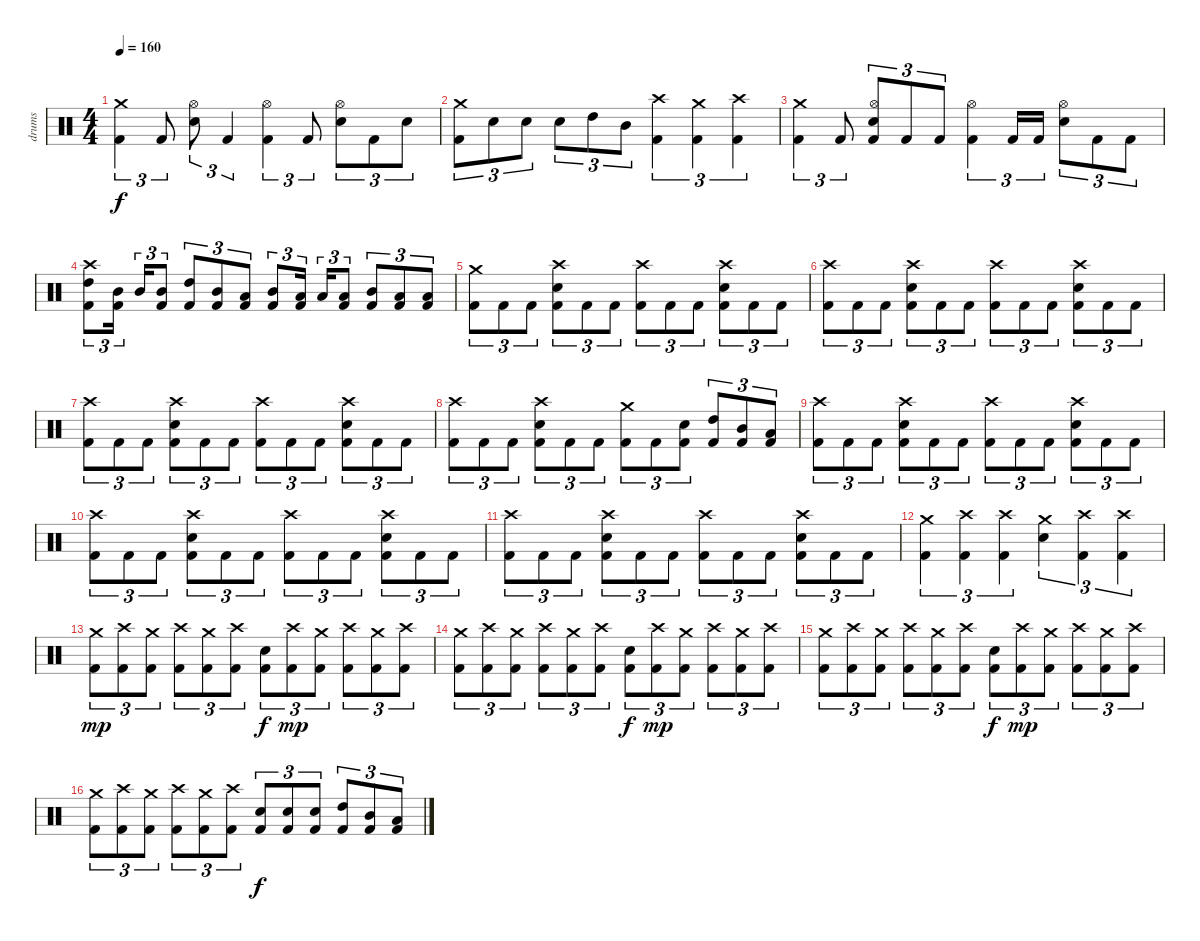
\track ("drums" "drums") {instrument percussion}
\staff {score}
\articulation defaults
\ts (4 4)
\tempo 160
\clef neutral
\ks c
("Crash medium (hit)" "Kick (hit) 2").4{tu (3 2) dy f} "Kick (hit) 2".8{tu (3 2)} ("Hi-Hat (open)" "Electric Snare (hit)").8{tu (3 2)} "Kick (hit) 2".4{tu (3 2)} ("Hi-Hat (open)" "Kick (hit) 2").4{tu (3 2)} "Kick (hit) 2".8{tu (3 2)} ("Hi-Hat (open)" "Electric Snare (hit)").8{tu (3 2)} "Kick (hit) 2".8{tu (3 2)} "Electric Snare (hit)".8{tu (3 2)} |
("Crash medium (hit)" "Kick (hit) 2").8{tu (3 2)} "Electric Snare (hit)".8{tu (3 2)} "Electric Snare (hit)".8{tu (3 2)} "Electric Snare (hit)".8{tu (3 2)} "High Tom (hit)".8{tu (3 2)} "Mid Tom (hit)".8{tu (3 2)} ("Crash high (hit)" "Kick (hit) 2").4{tu (3 2)} ("Crash medium (hit)" "Kick (hit) 2").4{tu (3 2)} ("Crash high (hit)" "Kick (hit) 2").4{tu (3 2)} |
("Crash medium (hit)" "Kick (hit) 2").4{tu (3 2)} "Kick (hit) 2".8{tu (3 2)} ("Hi-Hat (open)" "Electric Snare (hit)" "Kick (hit) 2").8{tu (3 2)} "Kick (hit) 2".8{tu (3 2)} "Kick (hit) 2".8{tu (3 2)} ("Hi-Hat (open)" "Kick (hit) 2").4{tu (3 2)} "Kick (hit) 2".16{tu (3 2)} "Kick (hit) 2".16{tu (3 2)} ("Hi-Hat (open)" "Electric Snare (hit)").8{tu (3 2)} "Kick (hit) 2".8{tu (3 2)} "Kick (hit) 2".8{tu (3 2)} |
("Crash high (hit)" "High Tom (hit)" "Kick (hit) 2").8{tu (3 2)} ("Mid Tom (hit)" "Kick (hit) 2").16{tu (3 2)} "Mid Tom (hit)".16{tu (3 2)} ("Mid Tom (hit)" "Kick (hit) 2").8{tu (3 2)} ("High Tom (hit)" "Kick (hit) 2").8{tu (3 2)} ("Mid Tom (hit)" "Kick (hit) 2").8{tu (3 2)} ("Low Tom (hit)" "Kick (hit) 2").8{tu (3 2)} ("Mid Tom (hit)" "Kick (hit) 2").8{tu (3 2)} ("Low Tom (hit)" "Kick (hit) 2").16{tu (3 2)} "Low Tom (hit)".16{tu (3 2)} ("Low Tom (hit)" "Kick (hit) 2").8{tu (3 2)} ("Mid Tom (hit)" "Kick (hit) 2").8{tu (3 2)} ("Low Tom (hit)" "Kick (hit) 2").8{tu (3 2)} ("Low Tom (hit)" "Kick (hit) 2").8{tu (3 2)} |
("Crash medium (hit)" "Kick (hit) 2").8{tu (3 2)} "Kick (hit) 2".8{tu (3 2)} "Kick (hit) 2".8{tu (3 2)} ("Crash high (hit)" "Electric Snare (hit)" "Kick (hit) 2").8{tu (3 2)} "Kick (hit) 2".8{tu (3 2)} "Kick (hit) 2".8{tu (3 2)} ("Crash high (hit)" "Kick (hit) 2").8{tu (3 2)} "Kick (hit) 2".8{tu (3 2)} "Kick (hit) 2".8{tu (3 2)} ("Crash high (hit)" "Electric Snare (hit)" "Kick (hit) 2").8{tu (3 2)} "Kick (hit) 2".8{tu (3 2)} "Kick (hit) 2".8{tu (3 2)} |
("Crash high (hit)" "Kick (hit) 2").8{tu (3 2)} "Kick (hit) 2".8{tu (3 2)} "Kick (hit) 2".8{tu (3 2)} ("Crash high (hit)" "Electric Snare (hit)" "Kick (hit) 2").8{tu (3 2)} "Kick (hit) 2".8{tu (3 2)} "Kick (hit) 2".8{tu (3 2)} ("Crash high (hit)" "Kick (hit) 2").8{tu (3 2)} "Kick (hit) 2".8{tu (3 2)} "Kick (hit) 2".8{tu (3 2)} ("Crash high (hit)" "Electric Snare (hit)" "Kick (hit) 2").8{tu (3 2)} "Kick (hit) 2".8{tu (3 2)} "Kick (hit) 2".8{tu (3 2)} |
("Crash high (hit)" "Kick (hit) 2").8{tu (3 2)} "Kick (hit) 2".8{tu (3 2)} "Kick (hit) 2".8{tu (3 2)} ("Crash high (hit)" "Electric Snare (hit)" "Kick (hit) 2").8{tu (3 2)} "Kick (hit) 2".8{tu (3 2)} "Kick (hit) 2".8{tu (3 2)} ("Crash high (hit)" "Kick (hit) 2").8{tu (3 2)} "Kick (hit) 2".8{tu (3 2)} "Kick (hit) 2".8{tu (3 2)} ("Crash high (hit)" "Electric Snare (hit)" "Kick (hit) 2").8{tu (3 2)} "Kick (hit) 2".8{tu (3 2)} "Kick (hit) 2".8{tu (3 2)} |
("Crash high (hit)" "Kick (hit) 2").8{tu (3 2)} "Kick (hit) 2".8{tu (3 2)} "Kick (hit) 2".8{tu (3 2)} ("Crash high (hit)" "Electric Snare (hit)" "Kick (hit) 2").8{tu (3 2)} "Kick (hit) 2".8{tu (3 2)} "Kick (hit) 2".8{tu (3 2)} ("Crash medium (hit)" "Kick (hit) 2").8{tu (3 2)} "Kick (hit) 2".8{tu (3 2)} ("Electric Snare (hit)" "Kick (hit) 2").8{tu (3 2)} ("High Tom (hit)" "Kick (hit) 2").8{tu (3 2)} ("Mid Tom (hit)" "Kick (hit) 2").8{tu (3 2)} ("Low Tom (hit)" "Kick (hit) 2").8{tu (3 2)} |
("Crash high (hit)" "Kick (hit) 2").8{tu (3 2)} "Kick (hit) 2".8{tu (3 2)} "Kick (hit) 2".8{tu (3 2)} ("Crash high (hit)" "Electric Snare (hit)" "Kick (hit) 2").8{tu (3 2)} "Kick (hit) 2".8{tu (3 2)} "Kick (hit) 2".8{tu (3 2)} ("Crash high (hit)" "Kick (hit) 2").8{tu (3 2)} "Kick (hit) 2".8{tu (3 2)} "Kick (hit) 2".8{tu (3 2)} ("Crash high (hit)" "Electric Snare (hit)" "Kick (hit) 2").8{tu (3 2)} "Kick (hit) 2".8{tu (3 2)} "Kick (hit) 2".8{tu (3 2)} |
("Crash high (hit)" "Kick (hit) 2").8{tu (3 2)} "Kick (hit) 2".8{tu (3 2)} "Kick (hit) 2".8{tu (3 2)} ("Crash high (hit)" "Electric Snare (hit)" "Kick (hit) 2").8{tu (3 2)} "Kick (hit) 2".8{tu (3 2)} "Kick (hit) 2".8{tu (3 2)} ("Crash high (hit)" "Kick (hit) 2").8{tu (3 2)} "Kick (hit) 2".8{tu (3 2)} "Kick (hit) 2".8{tu (3 2)} ("Crash high (hit)" "Electric Snare (hit)" "Kick (hit) 2").8{tu (3 2)} "Kick (hit) 2".8{tu (3 2)} "Kick (hit) 2".8{tu (3 2)} |
("Crash high (hit)" "Kick (hit) 2").8{tu (3 2)} "Kick (hit) 2".8{tu (3 2)} "Kick (hit) 2".8{tu (3 2)} ("Crash high (hit)" "Electric Snare (hit)" "Kick (hit) 2").8{tu (3 2)} "Kick (hit) 2".8{tu (3 2)} "Kick (hit) 2".8{tu (3 2)} ("Crash high (hit)" "Kick (hit) 2").8{tu (3 2)} "Kick (hit) 2".8{tu (3 2)} "Kick (hit) 2".8{tu (3 2)} ("Crash high (hit)" "Electric Snare (hit)" "Kick (hit) 2").8{tu (3 2)} "Kick (hit) 2".8{tu (3 2)} "Kick (hit) 2".8{tu (3 2)} |
("Crash medium (hit)" "Kick (hit) 2").4{tu (3 2)} ("Crash high (hit)" "Kick (hit) 2").4{tu (3 2)} ("Crash high (hit)" "Kick (hit) 2").4{tu (3 2)} ("Crash medium (hit)" "Electric Snare (hit)").4{tu (3 2)} ("Crash high (hit)" "Kick (hit) 2").4{tu (3 2)} ("Crash high (hit)" "Kick (hit) 2").4{tu (3 2)} |
("Crash medium (hit)" "Kick (hit) 2").8{tu (3 2) dy mp} ("Crash high (hit)" "Kick (hit) 2").8{tu (3 2)} ("Crash medium (hit)" "Kick (hit) 2").8{tu (3 2)} ("Crash high (hit)" "Kick (hit) 2").8{tu (3 2)} ("Crash medium (hit)" "Kick (hit) 2").8{tu (3 2)} ("Crash high (hit)" "Kick (hit) 2").8{tu (3 2)} ("Electric Snare (hit)" "Kick (hit) 2").8{tu (3 2) dy f} ("Crash high (hit)" "Kick (hit) 2").8{tu (3 2) dy mp} ("Crash medium (hit)" "Kick (hit) 2").8{tu (3 2)} ("Crash high (hit)" "Kick (hit) 2").8{tu (3 2)} ("Crash medium (hit)" "Kick (hit) 2").8{tu (3 2)} ("Crash high (hit)" "Kick (hit) 2").8{tu (3 2)} |
("Crash medium (hit)" "Kick (hit) 2").8{tu (3 2)} ("Crash high (hit)" "Kick (hit) 2").8{tu (3 2)} ("Crash medium (hit)" "Kick (hit) 2").8{tu (3 2)} ("Crash high (hit)" "Kick (hit) 2").8{tu (3 2)} ("Crash medium (hit)" "Kick (hit) 2").8{tu (3 2)} ("Crash high (hit)" "Kick (hit) 2").8{tu (3 2)} ("Electric Snare (hit)" "Kick (hit) 2").8{tu (3 2) dy f} ("Crash high (hit)" "Kick (hit) 2").8{tu (3 2) dy mp} ("Crash medium (hit)" "Kick (hit) 2").8{tu (3 2)} ("Crash high (hit)" "Kick (hit) 2").8{tu (3 2)} ("Crash medium (hit)" "Kick (hit) 2").8{tu (3 2)} ("Crash high (hit)" "Kick (hit) 2").8{tu (3 2)} |
("Crash medium (hit)" "Kick (hit) 2").8{tu (3 2)} ("Crash high (hit)" "Kick (hit) 2").8{tu (3 2)} ("Crash medium (hit)" "Kick (hit) 2").8{tu (3 2)} ("Crash high (hit)" "Kick (hit) 2").8{tu (3 2)} ("Crash medium (hit)" "Kick (hit) 2").8{tu (3 2)} ("Crash high (hit)" "Kick (hit) 2").8{tu (3 2)} ("Electric Snare (hit)" "Kick (hit) 2").8{tu (3 2) dy f} ("Crash high (hit)" "Kick (hit) 2").8{tu (3 2) dy mp} ("Crash medium (hit)" "Kick (hit) 2").8{tu (3 2)} ("Crash high (hit)" "Kick (hit) 2").8{tu (3 2)} ("Crash medium (hit)" "Kick (hit) 2").8{tu (3 2)} ("Crash high (hit)" "Kick (hit) 2").8{tu (3 2)} |
("Crash medium (hit)" "Kick (hit) 2").8{tu (3 2)} ("Crash high (hit)" "Kick (hit) 2").8{tu (3 2)} ("Crash medium (hit)" "Kick (hit) 2").8{tu (3 2)} ("Crash high (hit)" "Kick (hit) 2").8{tu (3 2)} ("Crash medium (hit)" "Kick (hit) 2").8{tu (3 2)} ("Crash high (hit)" "Kick (hit) 2").8{tu (3 2)} ("Electric Snare (hit)" "Kick (hit) 2").8{tu (3 2) dy f} ("Electric Snare (hit)" "Kick (hit) 2").8{tu (3 2)} ("Electric Snare (hit)" "Kick (hit) 2").8{tu (3 2)} ("High Tom (hit)" "Kick (hit) 2").8{tu (3 2)} ("Mid Tom (hit)" "Kick (hit) 2").8{tu (3 2)} ("Low Tom (hit)" "Kick (hit) 2").8{tu (3 2)}
